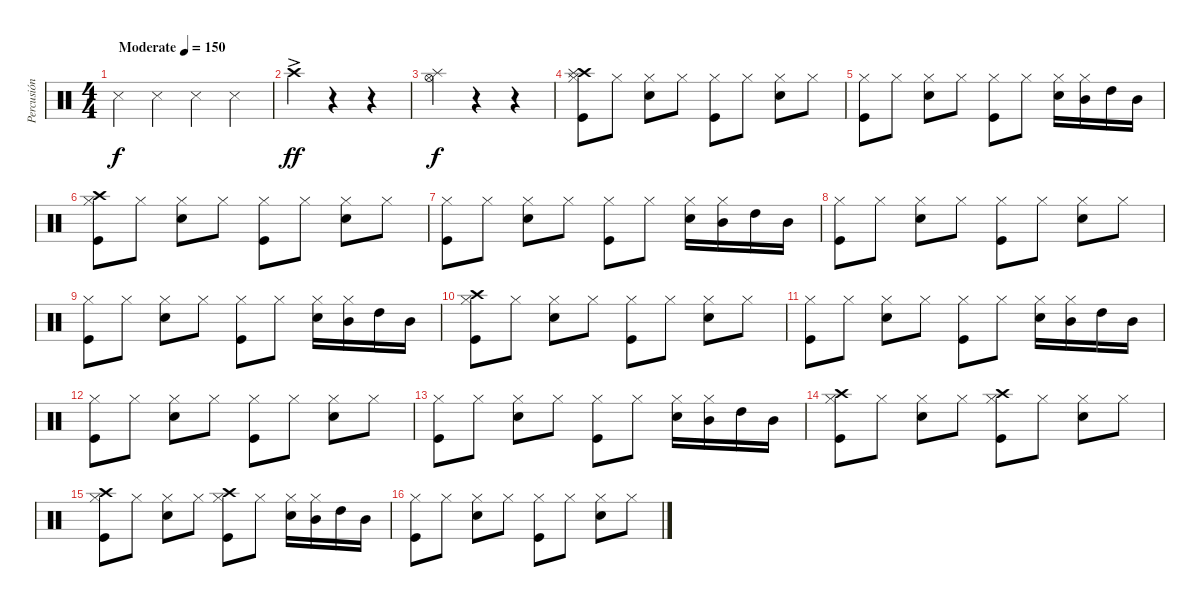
\track ("Percusión" "Percusión") {instrument percussion}
\staff {score}
\articulation defaults
\ts (4 4)
\tempo (150 "Moderate")
\clef neutral
\ks c "Snare (side stick) 3".4{dy f} "Snare (side stick) 3".4 "Snare (side stick) 3".4 "Snare (side stick) 3".4
|
"Crash high (hit)"{ac}.4{dy ff} r.4 r.4 |
("Hi-Hat (open)" "Splash (hit)").4{dy f} r.4 r.4 |
("Hi-Hat (closed)" "Crash high (hit)" "Splash (hit)" "Kick (hit)").8 "Hi-Hat (closed)".8 ("Hi-Hat (closed)" "Snare (hit) 2").8 "Hi-Hat (closed)".8 ("Hi-Hat (closed)" "Kick (hit)").8 "Hi-Hat (closed)".8 ("Hi-Hat (closed)" "Snare (hit) 2").8 "Hi-Hat (closed)".8 |
("Hi-Hat (closed)" "Kick (hit)").8 "Hi-Hat (closed)".8 ("Hi-Hat (closed)" "Snare (hit) 2").8 "Hi-Hat (closed)".8 ("Hi-Hat (closed)" "Kick (hit)").8 "Hi-Hat (closed)".8 ("Hi-Hat (closed)" "Snare (hit) 2").16 ("Hi-Hat (closed)" "Mid Tom (hit)").16 "High Tom (hit)".16 "Mid Tom (hit)".16 |
("Hi-Hat (closed)" "Crash high (hit)" "Kick (hit)").8 "Hi-Hat (closed)".8 ("Hi-Hat (closed)" "Snare (hit) 2").8 "Hi-Hat (closed)".8 ("Hi-Hat (closed)" "Kick (hit)").8 "Hi-Hat (closed)".8 ("Hi-Hat (closed)" "Snare (hit) 2").8 "Hi-Hat (closed)".8 |
("Hi-Hat (closed)" "Kick (hit)").8 "Hi-Hat (closed)".8 ("Hi-Hat (closed)" "Snare (hit) 2").8 "Hi-Hat (closed)".8 ("Hi-Hat (closed)" "Kick (hit)").8 "Hi-Hat (closed)".8 ("Hi-Hat (closed)" "Snare (hit) 2").16 ("Hi-Hat (closed)" "Mid Tom (hit)").16 "High Tom (hit)".16 "Mid Tom (hit)".16 |
("Hi-Hat (closed)" "Kick (hit)").8 "Hi-Hat (closed)".8 ("Hi-Hat (closed)" "Snare (hit) 2").8 "Hi-Hat (closed)".8 ("Hi-Hat (closed)" "Kick (hit)").8 "Hi-Hat (closed)".8 ("Hi-Hat (closed)" "Snare (hit) 2").8 "Hi-Hat (closed)".8 |
("Hi-Hat (closed)" "Kick (hit)").8 "Hi-Hat (closed)".8 ("Hi-Hat (closed)" "Snare (hit) 2").8 "Hi-Hat (closed)".8 ("Hi-Hat (closed)" "Kick (hit)").8 "Hi-Hat (closed)".8 ("Hi-Hat (closed)" "Snare (hit) 2").16 ("Hi-Hat (closed)" "Mid Tom (hit)").16 "High Tom (hit)".16 "Mid Tom (hit)".16 |
("Hi-Hat (closed)" "Crash high (hit)" "Kick (hit)").8 "Hi-Hat (closed)".8 ("Hi-Hat (closed)" "Snare (hit) 2").8 "Hi-Hat (closed)".8 ("Hi-Hat (closed)" "Kick (hit)").8 "Hi-Hat (closed)".8 ("Hi-Hat (closed)" "Snare (hit) 2").8 "Hi-Hat (closed)".8 |
("Hi-Hat (closed)" "Kick (hit)").8 "Hi-Hat (closed)".8 ("Hi-Hat (closed)" "Snare (hit) 2").8 "Hi-Hat (closed)".8 ("Hi-Hat (closed)" "Kick (hit)").8 "Hi-Hat (closed)".8 ("Hi-Hat (closed)" "Snare (hit) 2").16 ("Hi-Hat (closed)" "Mid Tom (hit)").16 "High Tom (hit)".16 "Mid Tom (hit)".16 |
("Hi-Hat (closed)" "Kick (hit)").8 "Hi-Hat (closed)".8 ("Hi-Hat (closed)" "Snare (hit) 2").8 "Hi-Hat (closed)".8 ("Hi-Hat (closed)" "Kick (hit)").8 "Hi-Hat (closed)".8 ("Hi-Hat (closed)" "Snare (hit) 2").8 "Hi-Hat (closed)".8 |
("Hi-Hat (closed)" "Kick (hit)").8 "Hi-Hat (closed)".8 ("Hi-Hat (closed)" "Snare (hit) 2").8 "Hi-Hat (closed)".8 ("Hi-Hat (closed)" "Kick (hit)").8 "Hi-Hat (closed)".8 ("Hi-Hat (closed)" "Snare (hit) 2").16 ("Hi-Hat (closed)" "Mid Tom (hit)").16 "High Tom (hit)".16 "Mid Tom (hit)".16 |
("Hi-Hat (closed)" "Crash high (hit)" "Kick (hit)").8 "Hi-Hat (closed)".8 ("Hi-Hat (closed)" "Snare (hit) 2").8 "Hi-Hat (closed)".8 ("Hi-Hat (closed)" "Crash high (hit)" "Kick (hit)").8 "Hi-Hat (closed)".8 ("Hi-Hat (closed)" "Snare (hit) 2").8 "Hi-Hat (closed)".8 |
("Hi-Hat (closed)" "Crash high (hit)" "Kick (hit)").8 "Hi-Hat (closed)".8 ("Hi-Hat (closed)" "Snare (hit) 2").8 "Hi-Hat (closed)".8 ("Hi-Hat (closed)" "Crash high (hit)" "Kick (hit)").8 "Hi-Hat (closed)".8 ("Hi-Hat (closed)" "Snare (hit) 2").16 ("Hi-Hat (closed)" "Mid Tom (hit)").16 "High Tom (hit)".16 "Mid Tom (hit)".16 |
("Hi-Hat (closed)" "Kick (hit)").8 "Hi-Hat (closed)".8 ("Hi-Hat (closed)" "Snare (hit) 2").8 "Hi-Hat (closed)".8 ("Hi-Hat (closed)" "Kick (hit)").8 "Hi-Hat (closed)".8 ("Hi-Hat (closed)" "Snare (hit) 2").8 "Hi-Hat (closed)".8
